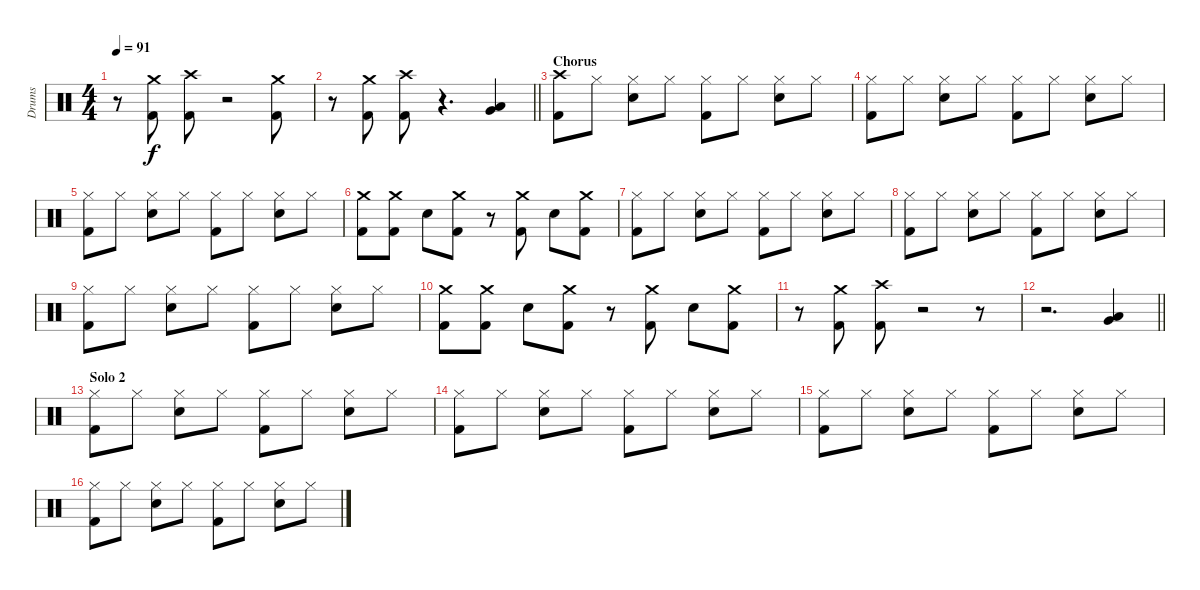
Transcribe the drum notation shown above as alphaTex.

\track ("Drums" "Drums") {instrument percussion}
\staff {score}
\articulation defaults
\ts (4 4)
\tempo 91
\clef neutral
\ks c
r.8{dy f} ("Crash medium (hit)" "Kick (hit) 2").8 ("Crash high (hit)" "Kick (hit) 2").8 r.2 ("Crash medium (hit)" "Kick (hit) 2").8 |
\barLineRight lightlight
r.8 ("Crash medium (hit)" "Kick (hit) 2").8 ("Crash high (hit)" "Kick (hit) 2").8 r.4{d} ("Very Low Tom (hit)" "Low Floor Tom (hit)").4 |
\section ("" "Chorus")
("Crash high (hit)" "Kick (hit) 2").8 "Hi-Hat (closed)".8 ("Hi-Hat (closed)" "Electric Snare (hit)").8 "Hi-Hat (closed)".8 ("Hi-Hat (closed)" "Kick (hit) 2").8 "Hi-Hat (closed)".8 ("Hi-Hat (closed)" "Electric Snare (hit)").8 "Hi-Hat (closed)".8 |
("Hi-Hat (closed)" "Kick (hit) 2").8 "Hi-Hat (closed)".8 ("Hi-Hat (closed)" "Electric Snare (hit)").8 "Hi-Hat (closed)".8 ("Hi-Hat (closed)" "Kick (hit) 2").8 "Hi-Hat (closed)".8 ("Hi-Hat (closed)" "Electric Snare (hit)").8 "Hi-Hat (closed)".8 |
("Hi-Hat (closed)" "Kick (hit) 2").8 "Hi-Hat (closed)".8 ("Hi-Hat (closed)" "Electric Snare (hit)").8 "Hi-Hat (closed)".8 ("Hi-Hat (closed)" "Kick (hit) 2").8 "Hi-Hat (closed)".8 ("Hi-Hat (closed)" "Electric Snare (hit)").8 "Hi-Hat (closed)".8 |
("Crash medium (hit)" "Kick (hit) 2").8 ("Crash medium (hit)" "Kick (hit) 2").8 "Electric Snare (hit)".8 ("Crash medium (hit)" "Kick (hit) 2").8 r.8 ("Crash medium (hit)" "Kick (hit) 2").8 "Electric Snare (hit)".8 ("Crash medium (hit)" "Kick (hit) 2").8 |
("Hi-Hat (closed)" "Kick (hit) 2").8 "Hi-Hat (closed)".8 ("Hi-Hat (closed)" "Electric Snare (hit)").8 "Hi-Hat (closed)".8 ("Hi-Hat (closed)" "Kick (hit) 2").8 "Hi-Hat (closed)".8 ("Hi-Hat (closed)" "Electric Snare (hit)").8 "Hi-Hat (closed)".8 |
("Hi-Hat (closed)" "Kick (hit) 2").8 "Hi-Hat (closed)".8 ("Hi-Hat (closed)" "Electric Snare (hit)").8 "Hi-Hat (closed)".8 ("Hi-Hat (closed)" "Kick (hit) 2").8 "Hi-Hat (closed)".8 ("Hi-Hat (closed)" "Electric Snare (hit)").8 "Hi-Hat (closed)".8 |
("Hi-Hat (closed)" "Kick (hit) 2").8 "Hi-Hat (closed)".8 ("Hi-Hat (closed)" "Electric Snare (hit)").8 "Hi-Hat (closed)".8 ("Hi-Hat (closed)" "Kick (hit) 2").8 "Hi-Hat (closed)".8 ("Hi-Hat (closed)" "Electric Snare (hit)").8 "Hi-Hat (closed)".8 |
("Crash medium (hit)" "Kick (hit) 2").8 ("Crash medium (hit)" "Kick (hit) 2").8 "Electric Snare (hit)".8 ("Crash medium (hit)" "Kick (hit) 2").8 r.8 ("Crash medium (hit)" "Kick (hit) 2").8 "Electric Snare (hit)".8 ("Crash medium (hit)" "Kick (hit) 2").8 |
r.8 ("Crash medium (hit)" "Kick (hit) 2").8 ("Crash high (hit)" "Kick (hit) 2").8 r.2 r.8 |
\barLineRight lightlight
r.2{d} ("Very Low Tom (hit)" "Low Floor Tom (hit)").4 |
\section ("" "Solo 2")
("Hi-Hat (closed)" "Kick (hit) 2").8 "Hi-Hat (closed)".8 ("Hi-Hat (closed)" "Electric Snare (hit)").8 "Hi-Hat (closed)".8 ("Hi-Hat (closed)" "Kick (hit) 2").8 "Hi-Hat (closed)".8 ("Hi-Hat (closed)" "Electric Snare (hit)").8 "Hi-Hat (closed)".8 |
("Hi-Hat (closed)" "Kick (hit) 2").8 "Hi-Hat (closed)".8 ("Hi-Hat (closed)" "Electric Snare (hit)").8 "Hi-Hat (closed)".8 ("Hi-Hat (closed)" "Kick (hit) 2").8 "Hi-Hat (closed)".8 ("Hi-Hat (closed)" "Electric Snare (hit)").8 "Hi-Hat (closed)".8 |
("Hi-Hat (closed)" "Kick (hit) 2").8 "Hi-Hat (closed)".8 ("Hi-Hat (closed)" "Electric Snare (hit)").8 "Hi-Hat (closed)".8 ("Hi-Hat (closed)" "Kick (hit) 2").8 "Hi-Hat (closed)".8 ("Hi-Hat (closed)" "Electric Snare (hit)").8 "Hi-Hat (closed)".8 |
("Hi-Hat (closed)" "Kick (hit) 2").8 "Hi-Hat (closed)".8 ("Hi-Hat (closed)" "Electric Snare (hit)").8 "Hi-Hat (closed)".8 ("Hi-Hat (closed)" "Kick (hit) 2").8 "Hi-Hat (closed)".8 ("Hi-Hat (closed)" "Electric Snare (hit)").8 "Hi-Hat (closed)".8
